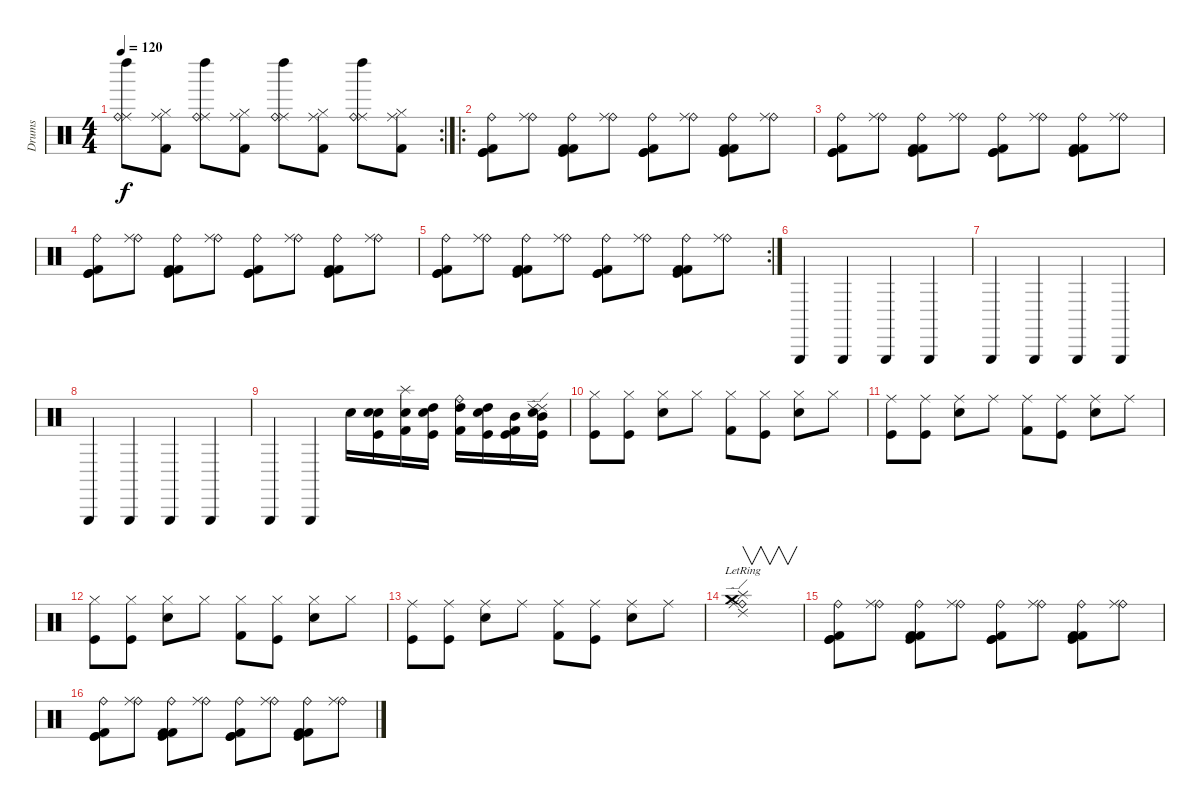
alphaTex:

\track ("Drums" "Drums") {instrument percussion}
\staff {score}
\articulation defaults
\rc 2
\ts (4 4)
\tempo 120
\clef neutral
\ks c
("Ride (middle)" "Ride (bell)" "Left Maraca (hit)").8{dy f} ("Ride (middle)" "Hi-Hat (closed)" "Kick (hit) 2").8 ("Ride (middle)" "Ride (bell)" "Left Maraca (hit)").8 ("Ride (middle)" "Hi-Hat (closed)" "Kick (hit) 2").8 ("Ride (middle)" "Ride (bell)" "Left Maraca (hit)").8 ("Ride (middle)" "Hi-Hat (closed)" "Kick (hit) 2").8 ("Ride (middle)" "Ride (bell)" "Left Maraca (hit)").8 ("Ride (middle)" "Hi-Hat (closed)" "Kick (hit) 2").8 |
\ro
("Ride (bell)" "Kick (hit)" "Kick (hit) 2" "Kick (hit)").8 ("Ride (bell)" "Ride (middle)").8 ("Ride (bell)" "Kick (hit) 2" "Kick (hit)" "Kick (hit) 2").8 ("Ride (bell)" "Ride (middle)").8 ("Ride (bell)" "Kick (hit)" "Kick (hit) 2" "Kick (hit)").8 ("Ride (bell)" "Ride (middle)").8 ("Ride (bell)" "Kick (hit) 2" "Kick (hit)" "Kick (hit) 2").8 ("Ride (bell)" "Ride (middle)").8 |
("Ride (bell)" "Kick (hit)" "Kick (hit) 2" "Kick (hit)").8 ("Ride (bell)" "Ride (middle)").8 ("Ride (bell)" "Kick (hit) 2" "Kick (hit)" "Kick (hit) 2").8 ("Ride (bell)" "Ride (middle)").8 ("Ride (bell)" "Kick (hit)" "Kick (hit) 2" "Kick (hit)").8 ("Ride (bell)" "Ride (middle)").8 ("Ride (bell)" "Kick (hit) 2" "Kick (hit)" "Kick (hit) 2").8 ("Ride (bell)" "Ride (middle)").8 |
("Ride (bell)" "Kick (hit)" "Kick (hit) 2" "Kick (hit)").8 ("Ride (bell)" "Ride (middle)").8 ("Ride (bell)" "Kick (hit) 2" "Kick (hit)" "Kick (hit) 2").8 ("Ride (bell)" "Ride (middle)").8 ("Ride (bell)" "Kick (hit)" "Kick (hit) 2" "Kick (hit)").8 ("Ride (bell)" "Ride (middle)").8 ("Ride (bell)" "Kick (hit) 2" "Kick (hit)" "Kick (hit) 2").8 ("Ride (bell)" "Ride (middle)").8 |
\rc 2
("Ride (bell)" "Kick (hit)" "Kick (hit) 2" "Kick (hit)").8 ("Ride (bell)" "Ride (middle)").8 ("Ride (bell)" "Kick (hit) 2" "Kick (hit)" "Kick (hit) 2").8 ("Ride (bell)" "Ride (middle)").8 ("Ride (bell)" "Kick (hit)" "Kick (hit) 2" "Kick (hit)").8 ("Ride (bell)" "Ride (middle)").8 ("Ride (bell)" "Kick (hit) 2" "Kick (hit)" "Kick (hit) 2").8 ("Ride (bell)" "Ride (middle)").8 |
"Triangle (hit)".4 "Triangle (hit)".4 "Triangle (hit)".4 "Triangle (hit)".4 |
"Triangle (hit)".4 "Triangle (hit)".4 "Triangle (hit)".4 "Triangle (hit)".4 |
"Triangle (hit)".4 "Triangle (hit)".4 "Triangle (hit)".4 "Triangle (hit)".4 |
"Triangle (hit)".4 "Triangle (hit)".4 "Electric Snare (hit)".16 ("Electric Snare (hit)" "Snare (hit) 2" "Kick (hit)").16 ("Electric Snare (hit)" "Kick (hit) 2" "Splash (hit)").16 ("High Tom (hit)" "Snare (hit) 2" "Kick (hit)").16 ("High Tom (hit)" "Kick (hit) 2" "Ride (bell)").16 ("High Tom (hit)" "Snare (hit) 2" "Kick (hit)").16 ("Mid Tom (hit)" "Kick (hit) 2" "Kick (hit)").16 ("Mid Tom (hit)" "Snare (hit) 2" "Ride (edge) 2" "Kick (hit)" "Ride (edge) 2").16 |
("Hi-Hat (closed)" "Kick (hit)").8 ("Hi-Hat (closed)" "Kick (hit)").8 ("Hi-Hat (closed)" "Snare (hit) 2").8 "Hi-Hat (closed)".8 ("Hi-Hat (closed)" "Kick (hit) 2").8 ("Hi-Hat (closed)" "Kick (hit)").8 ("Hi-Hat (closed)" "Snare (hit) 2").8 "Hi-Hat (closed)".8 |
("Ride (middle)" "Kick (hit)").8 ("Ride (middle)" "Kick (hit)").8 ("Ride (middle)" "Snare (hit) 2").8 "Ride (middle)".8 ("Ride (middle)" "Kick (hit) 2").8 ("Ride (middle)" "Kick (hit)").8 ("Ride (middle)" "Snare (hit) 2").8 "Ride (middle)".8 |
("Hi-Hat (closed)" "Kick (hit)").8 ("Hi-Hat (closed)" "Kick (hit)").8 ("Hi-Hat (closed)" "Snare (hit) 2").8 "Hi-Hat (closed)".8 ("Hi-Hat (closed)" "Kick (hit) 2").8 ("Hi-Hat (closed)" "Kick (hit)").8 ("Hi-Hat (closed)" "Snare (hit) 2").8 "Hi-Hat (closed)".8 |
("Ride (middle)" "Kick (hit)").8 ("Ride (middle)" "Kick (hit)").8 ("Ride (middle)" "Snare (hit) 2").8 "Ride (middle)".8 ("Ride (middle)" "Kick (hit) 2").8 ("Ride (middle)" "Kick (hit)").8 ("Ride (middle)" "Snare (hit) 2").8 "Ride (middle)".8 |
("Ride (edge) 2"{lr} "Crash medium (hit)"{lr} "Splash (hit)"{lr} "Ride (bell)"{lr} "Ride (middle)"{lr}).1{v} |
("Ride (bell)" "Kick (hit)" "Kick (hit) 2" "Kick (hit)").8 ("Ride (bell)" "Ride (middle)").8 ("Ride (bell)" "Kick (hit) 2" "Kick (hit)" "Kick (hit) 2").8 ("Ride (bell)" "Ride (middle)").8 ("Ride (bell)" "Kick (hit)" "Kick (hit) 2" "Kick (hit)").8 ("Ride (bell)" "Ride (middle)").8 ("Ride (bell)" "Kick (hit) 2" "Kick (hit)" "Kick (hit) 2").8 ("Ride (bell)" "Ride (middle)").8 |
("Ride (bell)" "Kick (hit)" "Kick (hit) 2" "Kick (hit)").8 ("Ride (bell)" "Ride (middle)").8 ("Ride (bell)" "Kick (hit) 2" "Kick (hit)" "Kick (hit) 2").8 ("Ride (bell)" "Ride (middle)").8 ("Ride (bell)" "Kick (hit)" "Kick (hit) 2" "Kick (hit)").8 ("Ride (bell)" "Ride (middle)").8 ("Ride (bell)" "Kick (hit) 2" "Kick (hit)" "Kick (hit) 2").8 ("Ride (bell)" "Ride (middle)").8
